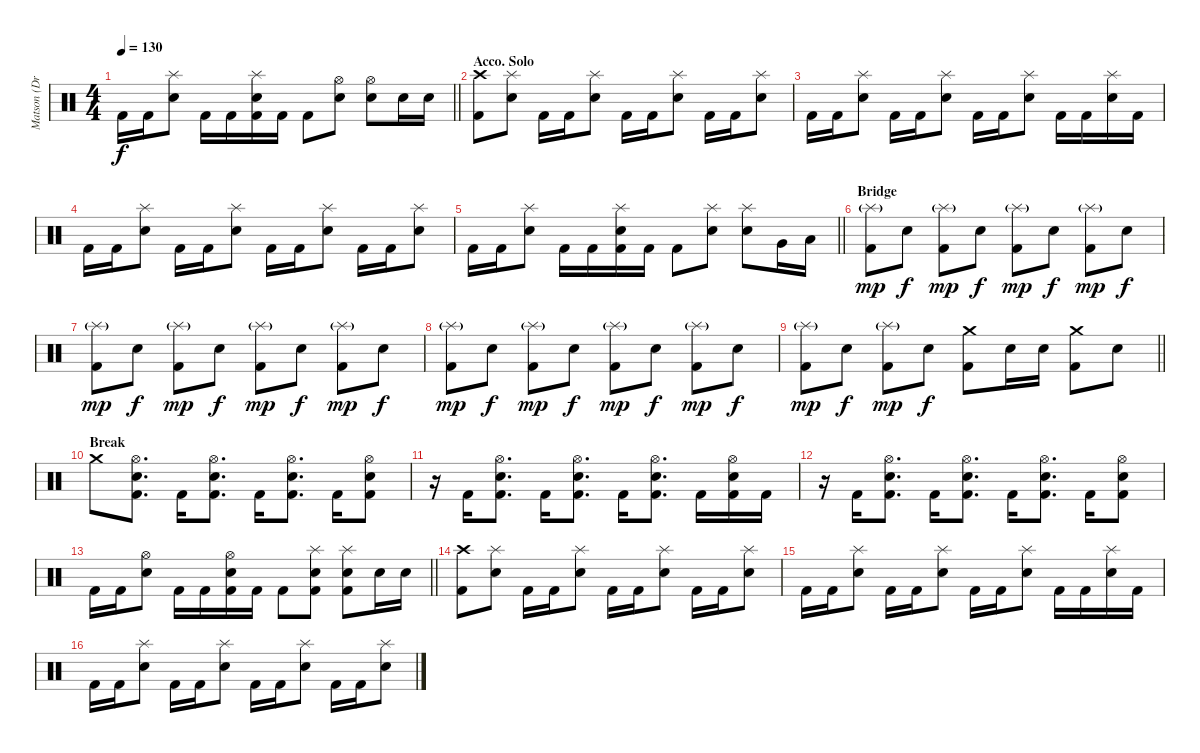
\track ("Matson (Drums)" "Matson (Dr") {instrument percussion}
\staff {score}
\articulation defaults
\ts (4 4)
\tempo 130
\clef neutral
\barLineRight lightlight
\ks c "Kick (hit) 2".16{dy f} "Kick (hit) 2".16
("Snare (hit) 2" "Splash (hit)").8 "Kick (hit) 2".16 "Kick (hit) 2".16 ("Kick (hit) 2" "Snare (hit) 2" "Splash (hit)").16 "Kick (hit) 2".16 "Kick (hit) 2".8 ("Snare (hit) 2" "Hi-Hat (open)").8 ("Snare (hit) 2" "Hi-Hat (open)").8 "Snare (hit) 2".16 "Snare (hit) 2".16 |
\section ("" "Acco. Solo")
("Kick (hit) 2" "Crash high (hit)").8 ("Snare (hit) 2" "Splash (hit)").8 "Kick (hit) 2".16 "Kick (hit) 2".16 ("Snare (hit) 2" "Splash (hit)").8 "Kick (hit) 2".16 "Kick (hit) 2".16 ("Snare (hit) 2" "Splash (hit)").8 "Kick (hit) 2".16 "Kick (hit) 2".16 ("Snare (hit) 2" "Splash (hit)").8 |
"Kick (hit) 2".16 "Kick (hit) 2".16 ("Snare (hit) 2" "Splash (hit)").8 "Kick (hit) 2".16 "Kick (hit) 2".16 ("Snare (hit) 2" "Splash (hit)").8 "Kick (hit) 2".16 "Kick (hit) 2".16 ("Snare (hit) 2" "Splash (hit)").8 "Kick (hit) 2".16 "Kick (hit) 2".16 ("Snare (hit) 2" "Splash (hit)").16 "Kick (hit) 2".16 |
"Kick (hit) 2".16 "Kick (hit) 2".16 ("Snare (hit) 2" "Splash (hit)").8 "Kick (hit) 2".16 "Kick (hit) 2".16 ("Snare (hit) 2" "Splash (hit)").8 "Kick (hit) 2".16 "Kick (hit) 2".16 ("Snare (hit) 2" "Splash (hit)").8 "Kick (hit) 2".16 "Kick (hit) 2".16 ("Snare (hit) 2" "Splash (hit)").8 |
\barLineRight lightlight "Kick (hit) 2".16 "Kick (hit) 2".16
("Snare (hit) 2" "Splash (hit)").8 "Kick (hit) 2".16 "Kick (hit) 2".16 ("Kick (hit) 2" "Snare (hit) 2" "Splash (hit)").16 "Kick (hit) 2".16 "Kick (hit) 2".8 ("Snare (hit) 2" "Splash (hit)").8 ("Snare (hit) 2" "Splash (hit)").8 "Very Low Tom (hit)".16 "Low Floor Tom (hit)".16 |
\section ("" "Bridge")
("Kick (hit) 2" "Splash (hit)"{g}).8{dy mp} "Snare (hit) 2".8{dy f} ("Kick (hit) 2" "Splash (hit)"{g}).8{dy mp} "Snare (hit) 2".8{dy f} ("Kick (hit) 2" "Splash (hit)"{g}).8{dy mp} "Snare (hit) 2".8{dy f} ("Kick (hit) 2" "Splash (hit)"{g}).8{dy mp} "Snare (hit) 2".8{dy f} |
("Kick (hit) 2" "Splash (hit)"{g}).8{dy mp} "Snare (hit) 2".8{dy f} ("Kick (hit) 2" "Splash (hit)"{g}).8{dy mp} "Snare (hit) 2".8{dy f} ("Kick (hit) 2" "Splash (hit)"{g}).8{dy mp} "Snare (hit) 2".8{dy f} ("Kick (hit) 2" "Splash (hit)"{g}).8{dy mp} "Snare (hit) 2".8{dy f} |
("Kick (hit) 2" "Splash (hit)"{g}).8{dy mp} "Snare (hit) 2".8{dy f} ("Kick (hit) 2" "Splash (hit)"{g}).8{dy mp} "Snare (hit) 2".8{dy f} ("Kick (hit) 2" "Splash (hit)"{g}).8{dy mp} "Snare (hit) 2".8{dy f} ("Kick (hit) 2" "Splash (hit)"{g}).8{dy mp} "Snare (hit) 2".8{dy f} |
\barLineRight lightlight
("Kick (hit) 2" "Splash (hit)"{g}).8{dy mp} "Snare (hit) 2".8{dy f} ("Kick (hit) 2" "Splash (hit)"{g}).8{dy mp} "Snare (hit) 2".8{dy f} ("Kick (hit) 2" "Crash medium (hit)").8 "Snare (hit) 2".16 "Snare (hit) 2".16 ("Kick (hit) 2" "Crash medium (hit)").8 "Snare (hit) 2".8 |
\section ("" "Break")
"Crash medium (hit)".8 ("Kick (hit) 2" "Snare (hit) 2" "Hi-Hat (open)").8{d} "Kick (hit) 2".16 ("Kick (hit) 2" "Snare (hit) 2" "Hi-Hat (open)").8{d} "Kick (hit) 2".16 ("Kick (hit) 2" "Snare (hit) 2" "Hi-Hat (open)").8{d} "Kick (hit) 2".16 ("Kick (hit) 2" "Snare (hit) 2" "Hi-Hat (open)").8 |
r.16 "Kick (hit) 2".16 ("Kick (hit) 2" "Snare (hit) 2" "Hi-Hat (open)").8{d} "Kick (hit) 2".16 ("Kick (hit) 2" "Snare (hit) 2" "Hi-Hat (open)").8{d} "Kick (hit) 2".16 ("Kick (hit) 2" "Snare (hit) 2" "Hi-Hat (open)").8{d} "Kick (hit) 2".16 ("Kick (hit) 2" "Snare (hit) 2" "Hi-Hat (open)").16 "Kick (hit) 2".16 |
r.16 "Kick (hit) 2".16 ("Kick (hit) 2" "Snare (hit) 2" "Hi-Hat (open)").8{d} "Kick (hit) 2".16 ("Kick (hit) 2" "Snare (hit) 2" "Hi-Hat (open)").8{d} "Kick (hit) 2".16 ("Kick (hit) 2" "Snare (hit) 2" "Hi-Hat (open)").8{d} "Kick (hit) 2".16 ("Kick (hit) 2" "Snare (hit) 2" "Hi-Hat (open)").8 |
\barLineRight lightlight "Kick (hit) 2".16 "Kick (hit) 2".16
("Snare (hit) 2" "Hi-Hat (open)").8 "Kick (hit) 2".16 "Kick (hit) 2".16 ("Kick (hit) 2" "Snare (hit) 2" "Hi-Hat (open)").16 "Kick (hit) 2".16 "Kick (hit) 2".8 ("Kick (hit) 2" "Snare (hit) 2" "Splash (hit)").8 ("Kick (hit) 2" "Snare (hit) 2" "Splash (hit)").8 "Snare (hit) 2".16 "Snare (hit) 2".16 |
\section ("" "")
("Kick (hit) 2" "Crash high (hit)").8 ("Snare (hit) 2" "Splash (hit)").8 "Kick (hit) 2".16 "Kick (hit) 2".16 ("Snare (hit) 2" "Splash (hit)").8 "Kick (hit) 2".16 "Kick (hit) 2".16 ("Snare (hit) 2" "Splash (hit)").8 "Kick (hit) 2".16 "Kick (hit) 2".16 ("Snare (hit) 2" "Splash (hit)").8 |
"Kick (hit) 2".16 "Kick (hit) 2".16 ("Snare (hit) 2" "Splash (hit)").8 "Kick (hit) 2".16 "Kick (hit) 2".16 ("Snare (hit) 2" "Splash (hit)").8 "Kick (hit) 2".16 "Kick (hit) 2".16 ("Snare (hit) 2" "Splash (hit)").8 "Kick (hit) 2".16 "Kick (hit) 2".16 ("Snare (hit) 2" "Splash (hit)").16 "Kick (hit) 2".16 |
"Kick (hit) 2".16 "Kick (hit) 2".16 ("Snare (hit) 2" "Splash (hit)").8 "Kick (hit) 2".16 "Kick (hit) 2".16 ("Snare (hit) 2" "Splash (hit)").8 "Kick (hit) 2".16 "Kick (hit) 2".16 ("Snare (hit) 2" "Splash (hit)").8 "Kick (hit) 2".16 "Kick (hit) 2".16 ("Snare (hit) 2" "Splash (hit)").8
